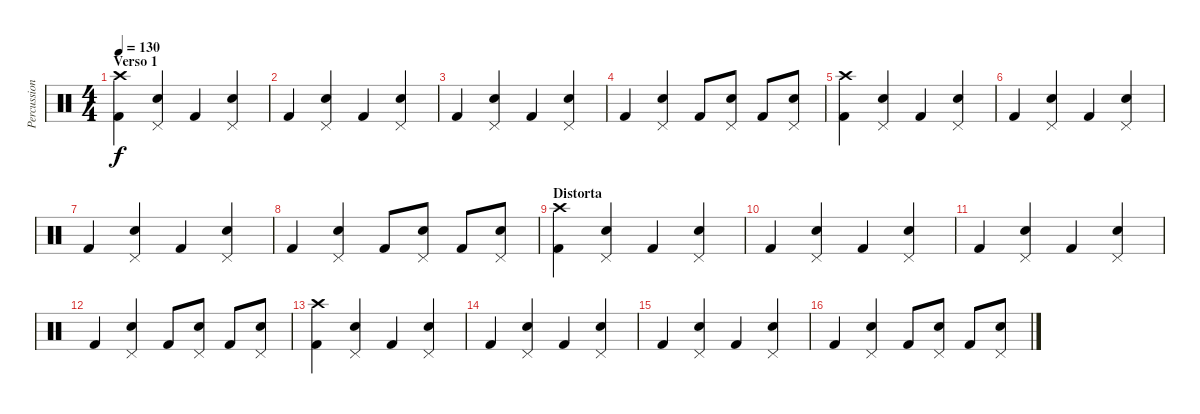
\track ("Percussioni" "Percussion") {instrument percussion}
\staff {score}
\articulation defaults
\ts (4 4)
\section ("" "Verso 1")
\tempo 130
\clef neutral
\ks c
("Crash high (hit)" "Kick (hit) 2").4{dy f} ("Pedal Hi-Hat (hit)" "Snare (hit) 2").4 "Kick (hit) 2".4 ("Pedal Hi-Hat (hit)" "Snare (hit) 2").4 |
"Kick (hit) 2".4 ("Pedal Hi-Hat (hit)" "Snare (hit) 2").4 "Kick (hit) 2".4 ("Pedal Hi-Hat (hit)" "Snare (hit) 2").4 |
"Kick (hit) 2".4 ("Pedal Hi-Hat (hit)" "Snare (hit) 2").4 "Kick (hit) 2".4 ("Pedal Hi-Hat (hit)" "Snare (hit) 2").4 |
"Kick (hit) 2".4 ("Pedal Hi-Hat (hit)" "Snare (hit) 2").4 "Kick (hit) 2".8 ("Pedal Hi-Hat (hit)" "Snare (hit) 2").8 "Kick (hit) 2".8 ("Pedal Hi-Hat (hit)" "Snare (hit) 2").8 |
("Crash high (hit)" "Kick (hit) 2").4 ("Pedal Hi-Hat (hit)" "Snare (hit) 2").4 "Kick (hit) 2".4 ("Pedal Hi-Hat (hit)" "Snare (hit) 2").4 |
"Kick (hit) 2".4 ("Pedal Hi-Hat (hit)" "Snare (hit) 2").4 "Kick (hit) 2".4 ("Pedal Hi-Hat (hit)" "Snare (hit) 2").4 |
"Kick (hit) 2".4 ("Pedal Hi-Hat (hit)" "Snare (hit) 2").4 "Kick (hit) 2".4 ("Pedal Hi-Hat (hit)" "Snare (hit) 2").4 |
"Kick (hit) 2".4 ("Pedal Hi-Hat (hit)" "Snare (hit) 2").4 "Kick (hit) 2".8 ("Pedal Hi-Hat (hit)" "Snare (hit) 2").8 "Kick (hit) 2".8 ("Pedal Hi-Hat (hit)" "Snare (hit) 2").8 |
\section ("" "Distorta")
("Crash high (hit)" "Kick (hit) 2").4{volume 13} ("Pedal Hi-Hat (hit)" "Snare (hit) 2").4 "Kick (hit) 2".4 ("Pedal Hi-Hat (hit)" "Snare (hit) 2").4 |
"Kick (hit) 2".4 ("Pedal Hi-Hat (hit)" "Snare (hit) 2").4 "Kick (hit) 2".4 ("Pedal Hi-Hat (hit)" "Snare (hit) 2").4 |
"Kick (hit) 2".4 ("Pedal Hi-Hat (hit)" "Snare (hit) 2").4 "Kick (hit) 2".4 ("Pedal Hi-Hat (hit)" "Snare (hit) 2").4 |
"Kick (hit) 2".4 ("Pedal Hi-Hat (hit)" "Snare (hit) 2").4 "Kick (hit) 2".8 ("Pedal Hi-Hat (hit)" "Snare (hit) 2").8 "Kick (hit) 2".8 ("Pedal Hi-Hat (hit)" "Snare (hit) 2").8 |
("Crash high (hit)" "Kick (hit) 2").4{volume 13} ("Pedal Hi-Hat (hit)" "Snare (hit) 2").4 "Kick (hit) 2".4 ("Pedal Hi-Hat (hit)" "Snare (hit) 2").4 |
"Kick (hit) 2".4 ("Pedal Hi-Hat (hit)" "Snare (hit) 2").4 "Kick (hit) 2".4 ("Pedal Hi-Hat (hit)" "Snare (hit) 2").4 |
"Kick (hit) 2".4 ("Pedal Hi-Hat (hit)" "Snare (hit) 2").4 "Kick (hit) 2".4 ("Pedal Hi-Hat (hit)" "Snare (hit) 2").4 |
"Kick (hit) 2".4 ("Pedal Hi-Hat (hit)" "Snare (hit) 2").4 "Kick (hit) 2".8 ("Pedal Hi-Hat (hit)" "Snare (hit) 2").8 "Kick (hit) 2".8 ("Pedal Hi-Hat (hit)" "Snare (hit) 2").8
